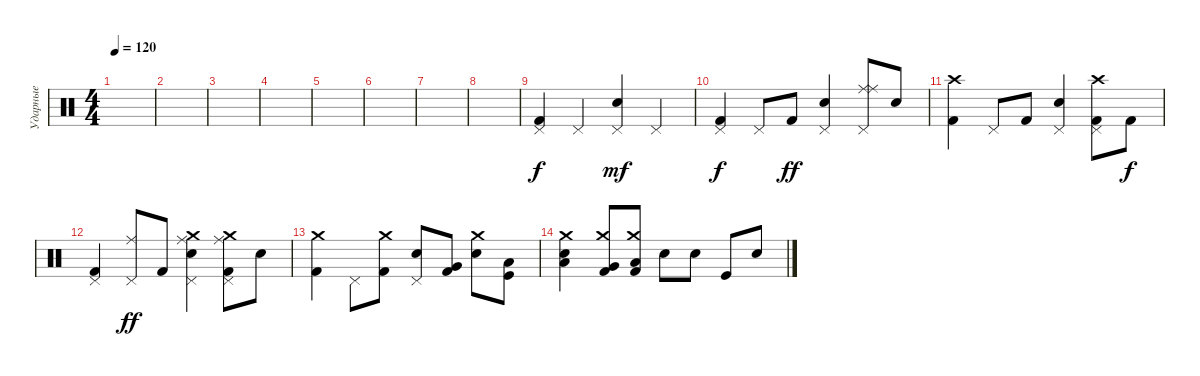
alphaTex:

\track ("Ударные" "Ударные") {instrument percussion}
\staff {score}
\articulation defaults
\ts (4 4)
\tempo 120
\clef neutral
\ks c
|
|
|
|
|
|
|
|
("Pedal Hi-Hat (hit)" "Kick (hit) 2").4 "Pedal Hi-Hat (hit)".4 ("Pedal Hi-Hat (hit)" "Snare (hit) 2").4{dy mf} "Pedal Hi-Hat (hit)".4 |
("Pedal Hi-Hat (hit)" "Kick (hit) 2").4{dy f} "Pedal Hi-Hat (hit)".8 "Kick (hit) 2".8{dy ff} ("Pedal Hi-Hat (hit)" "Snare (hit) 2").4 ("Ride (middle)" "Ride (middle)" "Pedal Hi-Hat (hit)").8 "Snare (hit) 2".8 |
("Kick (hit) 2" "Crash high (hit)").4 "Pedal Hi-Hat (hit)".8 "Kick (hit) 2".8 ("Pedal Hi-Hat (hit)" "Snare (hit) 2").4 ("Crash high (hit)" "Pedal Hi-Hat (hit)" "Kick (hit) 2").8 "Kick (hit) 2".8{dy f} |
("Pedal Hi-Hat (hit)" "Kick (hit) 2").4 ("Ride (middle)" "Pedal Hi-Hat (hit)").8{dy ff} "Kick (hit) 2".8 ("Crash medium (hit)" "Ride (middle)" "Pedal Hi-Hat (hit)" "Snare (hit) 2").4 ("Crash medium (hit)" "Ride (middle)" "Pedal Hi-Hat (hit)" "Kick (hit) 2").8 "Snare (hit) 2".8 |
("Crash medium (hit)" "Kick (hit) 2").4 "Pedal Hi-Hat (hit)".8 ("Crash medium (hit)" "Kick (hit) 2").8 ("Pedal Hi-Hat (hit)" "Snare (hit) 2").8 ("Very Low Tom (hit)" "Kick (hit) 2").8 ("Crash medium (hit)" "Snare (hit) 2").8 ("Kick (hit)" "Low Floor Tom (hit)").8 |
("Crash medium (hit)" "Snare (hit) 2" "Low Floor Tom (hit)").4 ("Crash medium (hit)" "Kick (hit) 2" "Very Low Tom (hit)").8 ("Crash medium (hit)" "Kick (hit) 2" "Low Floor Tom (hit)").8 "Snare (hit) 2".8 "Snare (hit) 2".8 "Kick (hit)".8 "Snare (hit) 2".8
